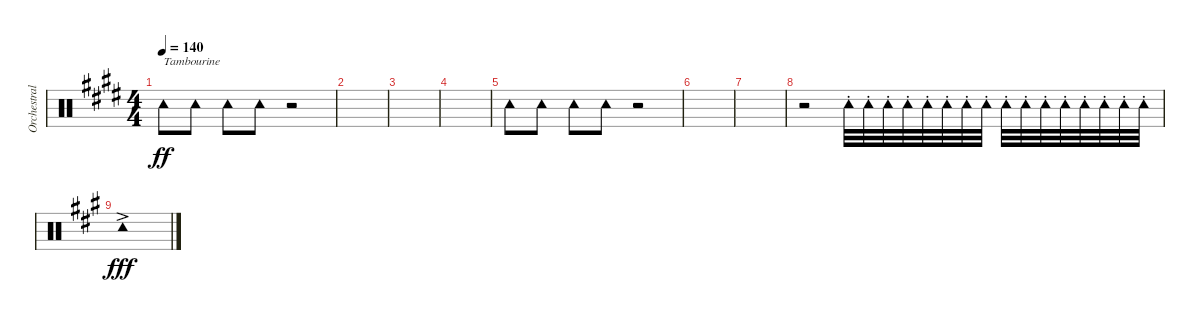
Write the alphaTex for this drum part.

\track ("Orchestral Percussion I" "Orchestral") {instrument percussion}
\staff {score}
\articulation defaults
\ts (4 4)
\tempo 140
\clef neutral
\ks c#minor "Tambourine (hit)".8{txt "Tambourine" dy ff} "Tambourine (hit)".8 "Tambourine (hit)".8 "Tambourine (hit)".8
r.2 |
|
|
|
"Tambourine (hit)".8 "Tambourine (hit)".8 "Tambourine (hit)".8 "Tambourine (hit)".8 r.2 |
|
|
r.2 "Tambourine (hit)"{st}.32{volume 6} "Tambourine (hit)"{st}.32 "Tambourine (hit)"{st}.32 "Tambourine (hit)"{st}.32 "Tambourine (hit)"{st}.32 "Tambourine (hit)"{st}.32 "Tambourine (hit)"{st}.32 "Tambourine (hit)"{st}.32 "Tambourine (hit)"{st}.32{volume 13} "Tambourine (hit)"{st}.32 "Tambourine (hit)"{st}.32 "Tambourine (hit)"{st}.32 "Tambourine (hit)"{st}.32 "Tambourine (hit)"{st}.32 "Tambourine (hit)"{st}.32 "Tambourine (hit)"{st}.32 |
\ks f#minor "Tambourine (hit)"{ac}.1{dy fff}
